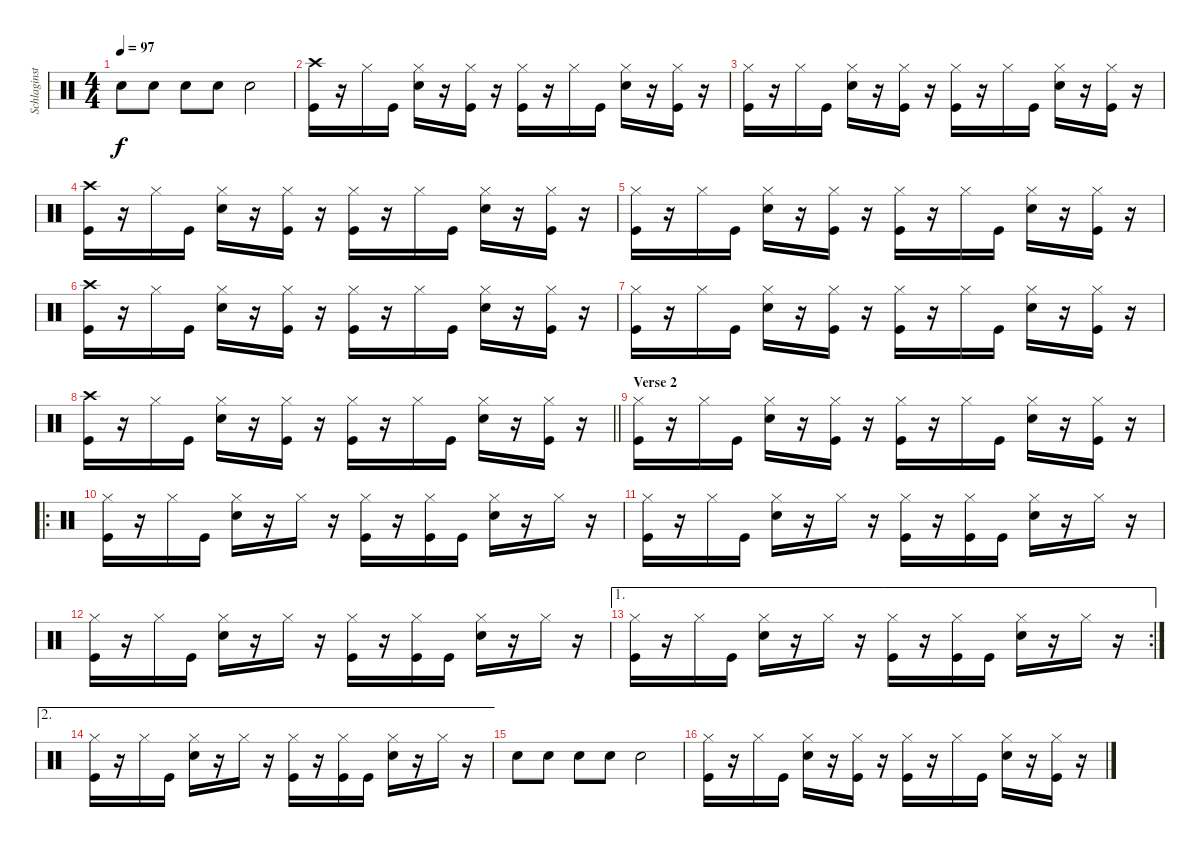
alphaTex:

\track ("Schlaginstrumente - Auswahl" "Schlaginst") {instrument percussion}
\staff {score}
\articulation defaults
\ts (4 4)
\tempo 97
\clef neutral
\ks c "Snare (hit) 2".8{dy f} "Snare (hit) 2".8 "Snare (hit) 2".8 "Snare (hit) 2".8 "Snare (hit) 2".2
|
("Crash high (hit)" "Kick (hit)").16 r.16 "Hi-Hat (closed)".16 "Kick (hit)".16 ("Hi-Hat (closed)" "Snare (hit) 2").16 r.16 ("Hi-Hat (closed)" "Kick (hit)").16 r.16 ("Hi-Hat (closed)" "Kick (hit)").16 r.16 "Hi-Hat (closed)".16 "Kick (hit)".16 ("Hi-Hat (closed)" "Snare (hit) 2").16 r.16 ("Hi-Hat (closed)" "Kick (hit)").16 r.16 |
("Hi-Hat (closed)" "Kick (hit)").16 r.16 "Hi-Hat (closed)".16 "Kick (hit)".16 ("Hi-Hat (closed)" "Snare (hit) 2").16 r.16 ("Hi-Hat (closed)" "Kick (hit)").16 r.16 ("Hi-Hat (closed)" "Kick (hit)").16 r.16 "Hi-Hat (closed)".16 "Kick (hit)".16 ("Hi-Hat (closed)" "Snare (hit) 2").16 r.16 ("Hi-Hat (closed)" "Kick (hit)").16 r.16 |
("Crash high (hit)" "Kick (hit)").16 r.16 "Hi-Hat (closed)".16 "Kick (hit)".16 ("Hi-Hat (closed)" "Snare (hit) 2").16 r.16 ("Hi-Hat (closed)" "Kick (hit)").16 r.16 ("Hi-Hat (closed)" "Kick (hit)").16 r.16 "Hi-Hat (closed)".16 "Kick (hit)".16 ("Hi-Hat (closed)" "Snare (hit) 2").16 r.16 ("Hi-Hat (closed)" "Kick (hit)").16 r.16 |
("Hi-Hat (closed)" "Kick (hit)").16 r.16 "Hi-Hat (closed)".16 "Kick (hit)".16 ("Hi-Hat (closed)" "Snare (hit) 2").16 r.16 ("Hi-Hat (closed)" "Kick (hit)").16 r.16 ("Hi-Hat (closed)" "Kick (hit)").16 r.16 "Hi-Hat (closed)".16 "Kick (hit)".16 ("Hi-Hat (closed)" "Snare (hit) 2").16 r.16 ("Hi-Hat (closed)" "Kick (hit)").16 r.16 |
("Crash high (hit)" "Kick (hit)").16 r.16 "Hi-Hat (closed)".16 "Kick (hit)".16 ("Hi-Hat (closed)" "Snare (hit) 2").16 r.16 ("Hi-Hat (closed)" "Kick (hit)").16 r.16 ("Hi-Hat (closed)" "Kick (hit)").16 r.16 "Hi-Hat (closed)".16 "Kick (hit)".16 ("Hi-Hat (closed)" "Snare (hit) 2").16 r.16 ("Hi-Hat (closed)" "Kick (hit)").16 r.16 |
("Hi-Hat (closed)" "Kick (hit)").16 r.16 "Hi-Hat (closed)".16 "Kick (hit)".16 ("Hi-Hat (closed)" "Snare (hit) 2").16 r.16 ("Hi-Hat (closed)" "Kick (hit)").16 r.16 ("Hi-Hat (closed)" "Kick (hit)").16 r.16 "Hi-Hat (closed)".16 "Kick (hit)".16 ("Hi-Hat (closed)" "Snare (hit) 2").16 r.16 ("Hi-Hat (closed)" "Kick (hit)").16 r.16 |
\barLineRight lightlight
("Crash high (hit)" "Kick (hit)").16 r.16 "Hi-Hat (closed)".16 "Kick (hit)".16 ("Hi-Hat (closed)" "Snare (hit) 2").16 r.16 ("Hi-Hat (closed)" "Kick (hit)").16 r.16 ("Hi-Hat (closed)" "Kick (hit)").16 r.16 "Hi-Hat (closed)".16 "Kick (hit)".16 ("Hi-Hat (closed)" "Snare (hit) 2").16 r.16 ("Hi-Hat (closed)" "Kick (hit)").16 r.16 |
\section ("" "Verse 2")
("Hi-Hat (closed)" "Kick (hit)").16 r.16 "Hi-Hat (closed)".16 "Kick (hit)".16 ("Hi-Hat (closed)" "Snare (hit) 2").16 r.16 ("Hi-Hat (closed)" "Kick (hit)").16 r.16 ("Hi-Hat (closed)" "Kick (hit)").16 r.16 "Hi-Hat (closed)".16 "Kick (hit)".16 ("Hi-Hat (closed)" "Snare (hit) 2").16 r.16 ("Hi-Hat (closed)" "Kick (hit)").16 r.16 |
\ro
("Hi-Hat (closed)" "Kick (hit)").16 r.16 "Hi-Hat (closed)".16 "Kick (hit)".16 ("Hi-Hat (closed)" "Snare (hit) 2").16 r.16 "Hi-Hat (closed)".16 r.16 ("Hi-Hat (closed)" "Kick (hit)").16 r.16 ("Hi-Hat (closed)" "Kick (hit)").16 "Kick (hit)".16 ("Hi-Hat (closed)" "Snare (hit) 2").16 r.16 "Hi-Hat (closed)".16 r.16 |
("Hi-Hat (closed)" "Kick (hit)").16 r.16 "Hi-Hat (closed)".16 "Kick (hit)".16 ("Hi-Hat (closed)" "Snare (hit) 2").16 r.16 "Hi-Hat (closed)".16 r.16 ("Hi-Hat (closed)" "Kick (hit)").16 r.16 ("Hi-Hat (closed)" "Kick (hit)").16 "Kick (hit)".16 ("Hi-Hat (closed)" "Snare (hit) 2").16 r.16 "Hi-Hat (closed)".16 r.16 |
("Hi-Hat (closed)" "Kick (hit)").16 r.16 "Hi-Hat (closed)".16 "Kick (hit)".16 ("Hi-Hat (closed)" "Snare (hit) 2").16 r.16 "Hi-Hat (closed)".16 r.16 ("Hi-Hat (closed)" "Kick (hit)").16 r.16 ("Hi-Hat (closed)" "Kick (hit)").16 "Kick (hit)".16 ("Hi-Hat (closed)" "Snare (hit) 2").16 r.16 "Hi-Hat (closed)".16 r.16 |
\ae 1
\rc 2
("Hi-Hat (closed)" "Kick (hit)").16 r.16 "Hi-Hat (closed)".16 "Kick (hit)".16 ("Hi-Hat (closed)" "Snare (hit) 2").16 r.16 "Hi-Hat (closed)".16 r.16 ("Hi-Hat (closed)" "Kick (hit)").16 r.16 ("Hi-Hat (closed)" "Kick (hit)").16 "Kick (hit)".16 ("Hi-Hat (closed)" "Snare (hit) 2").16 r.16 "Hi-Hat (closed)".16 r.16 |
\ae 2
("Hi-Hat (closed)" "Kick (hit)").16 r.16 "Hi-Hat (closed)".16 "Kick (hit)".16 ("Hi-Hat (closed)" "Snare (hit) 2").16 r.16 "Hi-Hat (closed)".16 r.16 ("Hi-Hat (closed)" "Kick (hit)").16 r.16 ("Hi-Hat (closed)" "Kick (hit)").16 "Kick (hit)".16 ("Hi-Hat (closed)" "Snare (hit) 2").16 r.16 "Hi-Hat (closed)".16 r.16 |
"Snare (hit) 2".8 "Snare (hit) 2".8 "Snare (hit) 2".8 "Snare (hit) 2".8 "Snare (hit) 2".2 |
("Hi-Hat (closed)" "Kick (hit)").16 r.16 "Hi-Hat (closed)".16 "Kick (hit)".16 ("Hi-Hat (closed)" "Snare (hit) 2").16 r.16 ("Hi-Hat (closed)" "Kick (hit)").16 r.16 ("Hi-Hat (closed)" "Kick (hit)").16 r.16 "Hi-Hat (closed)".16 "Kick (hit)".16 ("Hi-Hat (closed)" "Snare (hit) 2").16 r.16 ("Hi-Hat (closed)" "Kick (hit)").16 r.16
